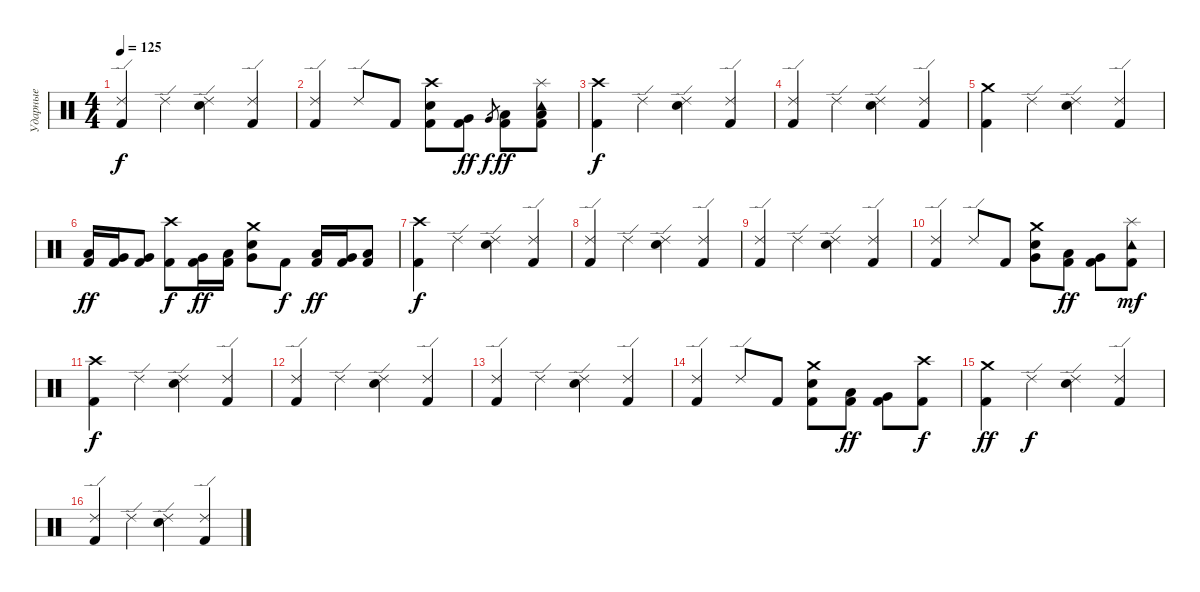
\track ("Ударные" "Ударные") {instrument percussion}
\staff {score}
\articulation defaults
\ts (4 4)
\tempo 125
\clef neutral
\ks c
("Ride (edge) 2" "Kick (hit) 2").4{dy f} "Ride (edge) 2".4 ("Ride (edge) 2" "Electric Snare (hit)").4 ("Ride (edge) 2" "Kick (hit) 2").4 |
("Ride (edge) 2" "Kick (hit) 2").4 "Ride (edge) 2".8 "Kick (hit) 2".8 ("Crash high (hit)" "Electric Snare (hit)" "Kick (hit) 2").8 ("Very Low Tom (hit)" "Kick (hit) 2").8{dy ff} "Very Low Tom (hit)".8{gr dy f} ("Low Tom (hit)" "Kick (hit) 2").8{dy ff} ("Tambourine (hit)" "Low Tom (hit)" "Kick (hit) 2" "Splash (hit)").8 |
("Crash high (hit)" "Kick (hit) 2").4{dy f} "Ride (edge) 2".4 ("Ride (edge) 2" "Electric Snare (hit)").4 ("Ride (edge) 2" "Kick (hit) 2").4 |
("Ride (edge) 2" "Kick (hit) 2").4 "Ride (edge) 2".4 ("Ride (edge) 2" "Electric Snare (hit)").4 ("Ride (edge) 2" "Kick (hit) 2").4 |
("Crash medium (hit)" "Kick (hit) 2").4 "Ride (edge) 2".4 ("Ride (edge) 2" "Electric Snare (hit)").4 ("Ride (edge) 2" "Kick (hit) 2").4 |
("Low Tom (hit)" "Kick (hit) 2").16{dy ff} ("Very Low Tom (hit)" "Kick (hit) 2").16 ("Very Low Tom (hit)" "Kick (hit) 2").8 ("Crash high (hit)" "Kick (hit) 2").8{dy f} ("Very Low Tom (hit)" "Kick (hit) 2").16{dy ff} ("Low Tom (hit)" "Kick (hit) 2").16 ("Crash medium (hit)" "Electric Snare (hit)" "Very Low Tom (hit)").8 "Kick (hit) 2".8{dy f} ("Low Tom (hit)" "Kick (hit) 2").16{dy ff} ("Very Low Tom (hit)" "Kick (hit) 2").16 ("Low Floor Tom (hit)" "Kick (hit) 2").8 |
("Crash high (hit)" "Kick (hit) 2").4{dy f} "Ride (edge) 2".4 ("Ride (edge) 2" "Electric Snare (hit)").4 ("Ride (edge) 2" "Kick (hit) 2").4 |
("Ride (edge) 2" "Kick (hit) 2").4 "Ride (edge) 2".4 ("Ride (edge) 2" "Electric Snare (hit)").4 ("Ride (edge) 2" "Kick (hit) 2").4 |
("Ride (edge) 2" "Kick (hit) 2").4 "Ride (edge) 2".4 ("Ride (edge) 2" "Electric Snare (hit)").4 ("Ride (edge) 2" "Kick (hit) 2").4 |
("Ride (edge) 2" "Kick (hit) 2").4 "Ride (edge) 2".8 "Kick (hit) 2".8 ("Crash medium (hit)" "Electric Snare (hit)" "Very Low Tom (hit)").8 ("Low Tom (hit)" "Kick (hit) 2").8{dy ff} ("Very Low Tom (hit)" "Kick (hit) 2").8 ("Tambourine (hit)" "Kick (hit) 2" "Splash (hit)").8{dy mf} |
("Crash high (hit)" "Kick (hit) 2").4{dy f} "Ride (edge) 2".4 ("Ride (edge) 2" "Electric Snare (hit)").4 ("Ride (edge) 2" "Kick (hit) 2").4 |
("Ride (edge) 2" "Kick (hit) 2").4 "Ride (edge) 2".4 ("Ride (edge) 2" "Electric Snare (hit)").4 ("Ride (edge) 2" "Kick (hit) 2").4 |
("Ride (edge) 2" "Kick (hit) 2").4 "Ride (edge) 2".4 ("Ride (edge) 2" "Electric Snare (hit)").4 ("Ride (edge) 2" "Kick (hit) 2").4 |
("Ride (edge) 2" "Kick (hit) 2").4 "Ride (edge) 2".8 "Kick (hit) 2".8 ("Crash medium (hit)" "Electric Snare (hit)" "Kick (hit) 2").8 ("Low Tom (hit)" "Kick (hit) 2").8{dy ff} ("Very Low Tom (hit)" "Kick (hit) 2").8 ("Crash high (hit)" "Kick (hit) 2").8{dy f} |
("Crash medium (hit)" "Kick (hit) 2").4{dy ff} "Ride (edge) 2".4{dy f} ("Ride (edge) 2" "Electric Snare (hit)").4 ("Ride (edge) 2" "Kick (hit) 2").4 |
("Ride (edge) 2" "Kick (hit) 2").4 "Ride (edge) 2".4 ("Ride (edge) 2" "Electric Snare (hit)").4 ("Ride (edge) 2" "Kick (hit) 2").4
